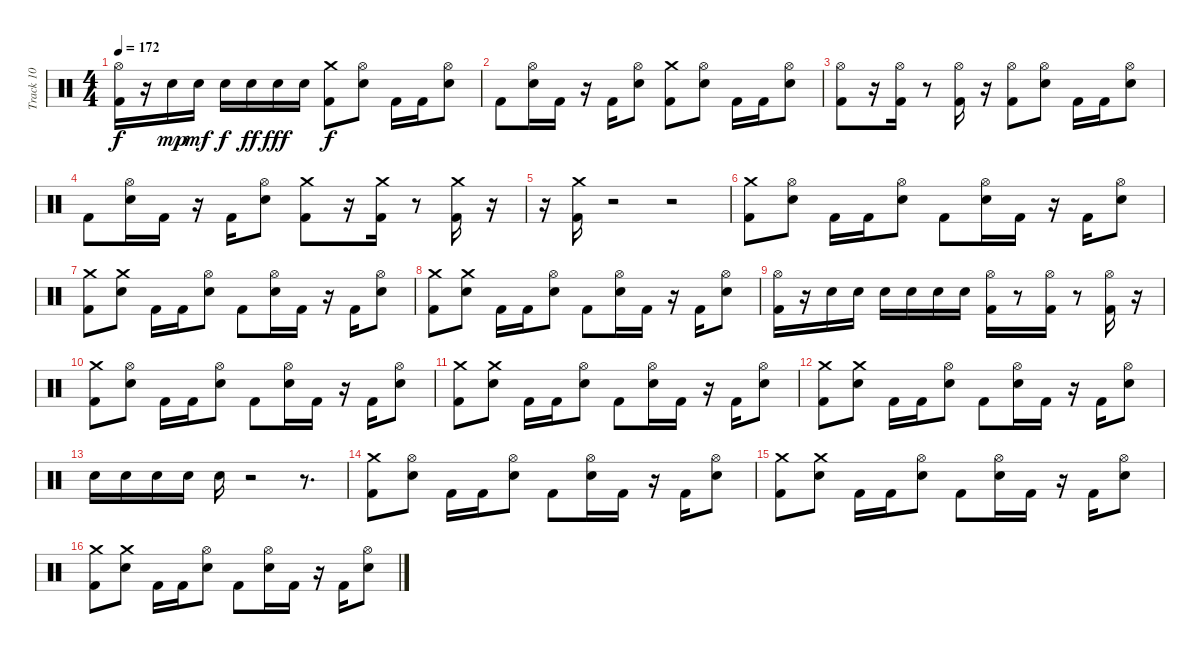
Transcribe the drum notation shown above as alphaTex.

\track ("Track 10" "Track 10") {instrument percussion}
\staff {score}
\articulation defaults
\ts (4 4)
\tempo 172
\clef neutral
\ks c
("Hi-Hat (open)" "Kick (hit) 2").16{dy f} r.16 "Electric Snare (hit)".16{dy mp} "Electric Snare (hit)".16{dy mf} "Electric Snare (hit)".16{dy f} "Electric Snare (hit)".16{dy ff} "Electric Snare (hit)".16{dy fff} "Electric Snare (hit)".16 ("Crash medium (hit)" "Kick (hit) 2").8{dy f} ("Hi-Hat (open)" "Electric Snare (hit)").8 "Kick (hit) 2".16 "Kick (hit) 2".16 ("Hi-Hat (open)" "Electric Snare (hit)").8 |
"Kick (hit) 2".8 ("Hi-Hat (open)" "Electric Snare (hit)").16 "Kick (hit) 2".16 r.16 "Kick (hit) 2".16 ("Hi-Hat (open)" "Electric Snare (hit)").8 ("Crash medium (hit)" "Kick (hit) 2").8 ("Hi-Hat (open)" "Electric Snare (hit)").8 "Kick (hit) 2".16 "Kick (hit) 2".16 ("Hi-Hat (open)" "Electric Snare (hit)").8 |
("Hi-Hat (open)" "Kick (hit) 2").8 r.16 ("Hi-Hat (open)" "Kick (hit) 2").16 r.8 ("Hi-Hat (open)" "Kick (hit) 2").16 r.16 ("Hi-Hat (open)" "Kick (hit) 2").8 ("Hi-Hat (open)" "Electric Snare (hit)").8 "Kick (hit) 2".16 "Kick (hit) 2".16 ("Hi-Hat (open)" "Electric Snare (hit)").8 |
"Kick (hit) 2".8 ("Hi-Hat (open)" "Electric Snare (hit)").16 "Kick (hit) 2".16 r.16 "Kick (hit) 2".16 ("Hi-Hat (open)" "Electric Snare (hit)").8 ("Crash medium (hit)" "Kick (hit) 2").8 r.16 ("Crash medium (hit)" "Kick (hit) 2").16 r.8 ("Crash medium (hit)" "Kick (hit) 2").16 r.16 |
r.16 ("Crash medium (hit)" "Kick (hit) 2").16 r.2 r.2 |
("Crash medium (hit)" "Kick (hit) 2").8 ("Hi-Hat (open)" "Electric Snare (hit)").8 "Kick (hit) 2".16 "Kick (hit) 2".16 ("Hi-Hat (open)" "Electric Snare (hit)").8 "Kick (hit) 2".8 ("Hi-Hat (open)" "Electric Snare (hit)").16 "Kick (hit) 2".16 r.16 "Kick (hit) 2".16 ("Hi-Hat (open)" "Electric Snare (hit)").8 |
("Crash medium (hit)" "Kick (hit) 2").8 ("Crash medium (hit)" "Electric Snare (hit)").8 "Kick (hit) 2".16 "Kick (hit) 2".16 ("Hi-Hat (open)" "Electric Snare (hit)").8 "Kick (hit) 2".8 ("Hi-Hat (open)" "Electric Snare (hit)").16 "Kick (hit) 2".16 r.16 "Kick (hit) 2".16 ("Hi-Hat (open)" "Electric Snare (hit)").8 |
("Crash medium (hit)" "Kick (hit) 2").8 ("Crash medium (hit)" "Electric Snare (hit)").8 "Kick (hit) 2".16 "Kick (hit) 2".16 ("Hi-Hat (open)" "Electric Snare (hit)").8 "Kick (hit) 2".8 ("Hi-Hat (open)" "Electric Snare (hit)").16 "Kick (hit) 2".16 r.16 "Kick (hit) 2".16 ("Hi-Hat (open)" "Electric Snare (hit)").8 |
("Hi-Hat (open)" "Kick (hit) 2").16 r.16 "Electric Snare (hit)".16 "Electric Snare (hit)".16 "Electric Snare (hit)".16 "Electric Snare (hit)".16 "Electric Snare (hit)".16 "Electric Snare (hit)".16 ("Hi-Hat (open)" "Kick (hit) 2").16 r.8 ("Hi-Hat (open)" "Kick (hit) 2").16 r.8 ("Hi-Hat (open)" "Kick (hit) 2").16 r.16 |
("Crash medium (hit)" "Kick (hit) 2").8 ("Hi-Hat (open)" "Electric Snare (hit)").8 "Kick (hit) 2".16 "Kick (hit) 2".16 ("Hi-Hat (open)" "Electric Snare (hit)").8 "Kick (hit) 2".8 ("Hi-Hat (open)" "Electric Snare (hit)").16 "Kick (hit) 2".16 r.16 "Kick (hit) 2".16 ("Hi-Hat (open)" "Electric Snare (hit)").8 |
("Crash medium (hit)" "Kick (hit) 2").8 ("Crash medium (hit)" "Electric Snare (hit)").8 "Kick (hit) 2".16 "Kick (hit) 2".16 ("Hi-Hat (open)" "Electric Snare (hit)").8 "Kick (hit) 2".8 ("Hi-Hat (open)" "Electric Snare (hit)").16 "Kick (hit) 2".16 r.16 "Kick (hit) 2".16 ("Hi-Hat (open)" "Electric Snare (hit)").8 |
("Crash medium (hit)" "Kick (hit) 2").8 ("Crash medium (hit)" "Electric Snare (hit)").8 "Kick (hit) 2".16 "Kick (hit) 2".16 ("Hi-Hat (open)" "Electric Snare (hit)").8 "Kick (hit) 2".8 ("Hi-Hat (open)" "Electric Snare (hit)").16 "Kick (hit) 2".16 r.16 "Kick (hit) 2".16 ("Hi-Hat (open)" "Electric Snare (hit)").8 |
"Electric Snare (hit)".16 "Electric Snare (hit)".16 "Electric Snare (hit)".16 "Electric Snare (hit)".16 "Electric Snare (hit)".16 r.2 r.8{d} |
("Crash medium (hit)" "Kick (hit) 2").8 ("Hi-Hat (open)" "Electric Snare (hit)").8 "Kick (hit) 2".16 "Kick (hit) 2".16 ("Hi-Hat (open)" "Electric Snare (hit)").8 "Kick (hit) 2".8 ("Hi-Hat (open)" "Electric Snare (hit)").16 "Kick (hit) 2".16 r.16 "Kick (hit) 2".16 ("Hi-Hat (open)" "Electric Snare (hit)").8 |
("Crash medium (hit)" "Kick (hit) 2").8 ("Crash medium (hit)" "Electric Snare (hit)").8 "Kick (hit) 2".16 "Kick (hit) 2".16 ("Hi-Hat (open)" "Electric Snare (hit)").8 "Kick (hit) 2".8 ("Hi-Hat (open)" "Electric Snare (hit)").16 "Kick (hit) 2".16 r.16 "Kick (hit) 2".16 ("Hi-Hat (open)" "Electric Snare (hit)").8 |
("Crash medium (hit)" "Kick (hit) 2").8 ("Crash medium (hit)" "Electric Snare (hit)").8 "Kick (hit) 2".16 "Kick (hit) 2".16 ("Hi-Hat (open)" "Electric Snare (hit)").8 "Kick (hit) 2".8 ("Hi-Hat (open)" "Electric Snare (hit)").16 "Kick (hit) 2".16 r.16 "Kick (hit) 2".16 ("Hi-Hat (open)" "Electric Snare (hit)").8
